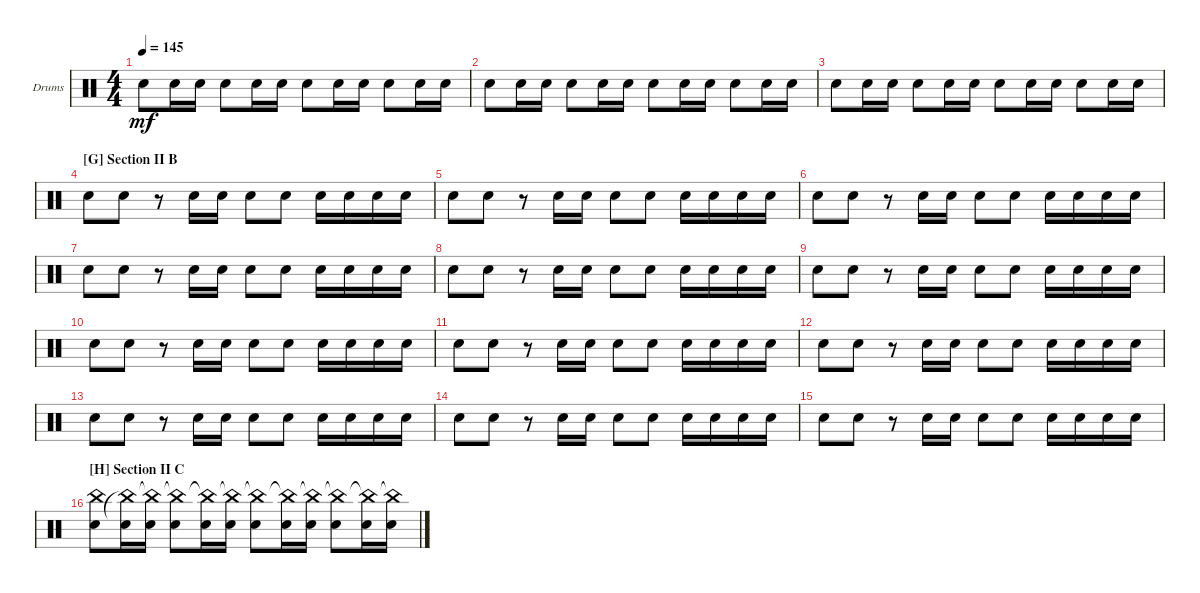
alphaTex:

\defaultSystemsLayout 4
\bracketExtendMode groupsimilarinstruments
\firstSystemTrackNameOrientation horizontal
\otherSystemsTrackNameOrientation horizontal
\track ("Drumkit" "Drums") {instrument percussion}
\staff {score}
\articulation defaults
\ts (4 4)
\tempo 145
\clef neutral
\scale
0.333333
\ks c "Snare (hit) 2".8{dy mf} "Snare (hit) 2".16 "Snare (hit) 2".16 "Snare (hit) 2".8 "Snare (hit) 2".16 "Snare (hit) 2".16 "Snare (hit) 2".8 "Snare (hit) 2".16 "Snare (hit) 2".16 "Snare (hit) 2".8 "Snare (hit) 2".16 "Snare (hit) 2".16
|
\scale
0.333333 "Snare (hit) 2".8 "Snare (hit) 2".16 "Snare (hit) 2".16 "Snare (hit) 2".8 "Snare (hit) 2".16 "Snare (hit) 2".16 "Snare (hit) 2".8 "Snare (hit) 2".16 "Snare (hit) 2".16 "Snare (hit) 2".8 "Snare (hit) 2".16 "Snare (hit) 2".16 |
\scale
0.333333 "Snare (hit) 2".8 "Snare (hit) 2".16 "Snare (hit) 2".16 "Snare (hit) 2".8 "Snare (hit) 2".16 "Snare (hit) 2".16 "Snare (hit) 2".8 "Snare (hit) 2".16 "Snare (hit) 2".16 "Snare (hit) 2".8 "Snare (hit) 2".16 "Snare (hit) 2".16 |
\section ("G" "Section II B")
\scale
0.333333 "Snare (hit) 2".8 "Snare (hit) 2".8 r.8 "Snare (hit) 2".16 "Snare (hit) 2".16 "Snare (hit) 2".8 "Snare (hit) 2".8 "Snare (hit) 2".16 "Snare (hit) 2".16 "Snare (hit) 2".16 "Snare (hit) 2".16 |
\scale
0.333333 "Snare (hit) 2".8 "Snare (hit) 2".8 r.8 "Snare (hit) 2".16 "Snare (hit) 2".16 "Snare (hit) 2".8 "Snare (hit) 2".8 "Snare (hit) 2".16 "Snare (hit) 2".16 "Snare (hit) 2".16 "Snare (hit) 2".16 |
\scale
0.333333 "Snare (hit) 2".8 "Snare (hit) 2".8 r.8 "Snare (hit) 2".16 "Snare (hit) 2".16 "Snare (hit) 2".8 "Snare (hit) 2".8 "Snare (hit) 2".16 "Snare (hit) 2".16 "Snare (hit) 2".16 "Snare (hit) 2".16 |
\scale
0.333333 "Snare (hit) 2".8 "Snare (hit) 2".8 r.8 "Snare (hit) 2".16 "Snare (hit) 2".16 "Snare (hit) 2".8 "Snare (hit) 2".8 "Snare (hit) 2".16 "Snare (hit) 2".16 "Snare (hit) 2".16 "Snare (hit) 2".16 |
\scale
0.333333 "Snare (hit) 2".8 "Snare (hit) 2".8 r.8 "Snare (hit) 2".16 "Snare (hit) 2".16 "Snare (hit) 2".8 "Snare (hit) 2".8 "Snare (hit) 2".16 "Snare (hit) 2".16 "Snare (hit) 2".16 "Snare (hit) 2".16 |
\scale
0.333333 "Snare (hit) 2".8 "Snare (hit) 2".8 r.8 "Snare (hit) 2".16 "Snare (hit) 2".16 "Snare (hit) 2".8 "Snare (hit) 2".8 "Snare (hit) 2".16 "Snare (hit) 2".16 "Snare (hit) 2".16 "Snare (hit) 2".16 |
\scale
0.333333 "Snare (hit) 2".8 "Snare (hit) 2".8 r.8 "Snare (hit) 2".16 "Snare (hit) 2".16 "Snare (hit) 2".8 "Snare (hit) 2".8 "Snare (hit) 2".16 "Snare (hit) 2".16 "Snare (hit) 2".16 "Snare (hit) 2".16 |
\scale
0.333333 "Snare (hit) 2".8 "Snare (hit) 2".8 r.8 "Snare (hit) 2".16 "Snare (hit) 2".16 "Snare (hit) 2".8 "Snare (hit) 2".8 "Snare (hit) 2".16 "Snare (hit) 2".16 "Snare (hit) 2".16 "Snare (hit) 2".16 |
\scale
0.333333 "Snare (hit) 2".8 "Snare (hit) 2".8 r.8 "Snare (hit) 2".16 "Snare (hit) 2".16 "Snare (hit) 2".8 "Snare (hit) 2".8 "Snare (hit) 2".16 "Snare (hit) 2".16 "Snare (hit) 2".16 "Snare (hit) 2".16 |
\scale
0.333333 "Snare (hit) 2".8 "Snare (hit) 2".8 r.8 "Snare (hit) 2".16 "Snare (hit) 2".16 "Snare (hit) 2".8 "Snare (hit) 2".8 "Snare (hit) 2".16 "Snare (hit) 2".16 "Snare (hit) 2".16 "Snare (hit) 2".16 |
\scale
0.333333 "Snare (hit) 2".8 "Snare (hit) 2".8 r.8 "Snare (hit) 2".16 "Snare (hit) 2".16 "Snare (hit) 2".8 "Snare (hit) 2".8 "Snare (hit) 2".16 "Snare (hit) 2".16 "Snare (hit) 2".16 "Snare (hit) 2".16 |
\scale
0.333333 "Snare (hit) 2".8 "Snare (hit) 2".8 r.8 "Snare (hit) 2".16 "Snare (hit) 2".16 "Snare (hit) 2".8 "Snare (hit) 2".8 "Snare (hit) 2".16 "Snare (hit) 2".16 "Snare (hit) 2".16 "Snare (hit) 2".16 |
\section ("H" "Section II C")
\scale
0.333333 ("China (hit)" "Snare (hit) 2").8 ("Snare (hit) 2" "China (hit)"{t}).16 ("Snare (hit) 2" "China (hit)"{t}).16 ("Snare (hit) 2" "China (hit)"{t}).8 ("Snare (hit) 2" "China (hit)"{t}).16 ("Snare (hit) 2" "China (hit)"{t}).16 ("Snare (hit) 2" "China (hit)"{t}).8 ("Snare (hit) 2" "China (hit)"{t}).16 ("Snare (hit) 2" "China (hit)"{t}).16 ("Snare (hit) 2" "China (hit)"{t}).8 ("Snare (hit) 2" "China (hit)"{t}).16 ("Snare (hit) 2" "China (hit)"{t}).16
